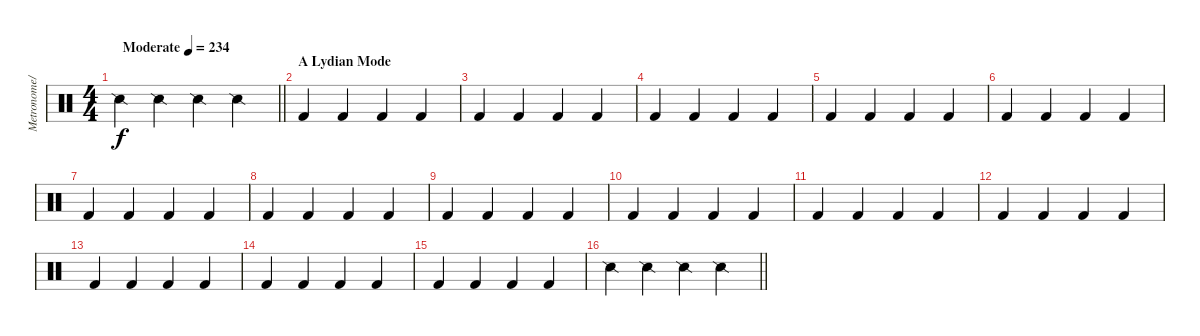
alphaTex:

\track ("Metronome/Beat" "Metronome/") {instrument percussion}
\staff {score}
\articulation defaults
\ts (4 4)
\tempo (234 "Moderate")
\clef neutral
\barLineRight lightlight
\ks c "Snare (side stick) 2".4{dy f} "Snare (side stick) 2".4 "Snare (side stick) 2".4 "Snare (side stick) 2".4
|
\section ("" "A Lydian Mode")
"Kick (hit) 2".4 "Kick (hit) 2".4 "Kick (hit) 2".4 "Kick (hit) 2".4 |
"Kick (hit) 2".4 "Kick (hit) 2".4 "Kick (hit) 2".4 "Kick (hit) 2".4 |
"Kick (hit) 2".4 "Kick (hit) 2".4 "Kick (hit) 2".4 "Kick (hit) 2".4 |
"Kick (hit) 2".4 "Kick (hit) 2".4 "Kick (hit) 2".4 "Kick (hit) 2".4 |
"Kick (hit) 2".4 "Kick (hit) 2".4 "Kick (hit) 2".4 "Kick (hit) 2".4 |
"Kick (hit) 2".4 "Kick (hit) 2".4 "Kick (hit) 2".4 "Kick (hit) 2".4 |
"Kick (hit) 2".4 "Kick (hit) 2".4 "Kick (hit) 2".4 "Kick (hit) 2".4 |
"Kick (hit) 2".4 "Kick (hit) 2".4 "Kick (hit) 2".4 "Kick (hit) 2".4 |
"Kick (hit) 2".4 "Kick (hit) 2".4 "Kick (hit) 2".4 "Kick (hit) 2".4 |
"Kick (hit) 2".4 "Kick (hit) 2".4 "Kick (hit) 2".4 "Kick (hit) 2".4 |
"Kick (hit) 2".4 "Kick (hit) 2".4 "Kick (hit) 2".4 "Kick (hit) 2".4 |
"Kick (hit) 2".4 "Kick (hit) 2".4 "Kick (hit) 2".4 "Kick (hit) 2".4 |
"Kick (hit) 2".4 "Kick (hit) 2".4 "Kick (hit) 2".4 "Kick (hit) 2".4 |
"Kick (hit) 2".4 "Kick (hit) 2".4 "Kick (hit) 2".4 "Kick (hit) 2".4 |
\barLineRight lightlight "Snare (side stick) 2".4 "Snare (side stick) 2".4 "Snare (side stick) 2".4 "Snare (side stick) 2".4
